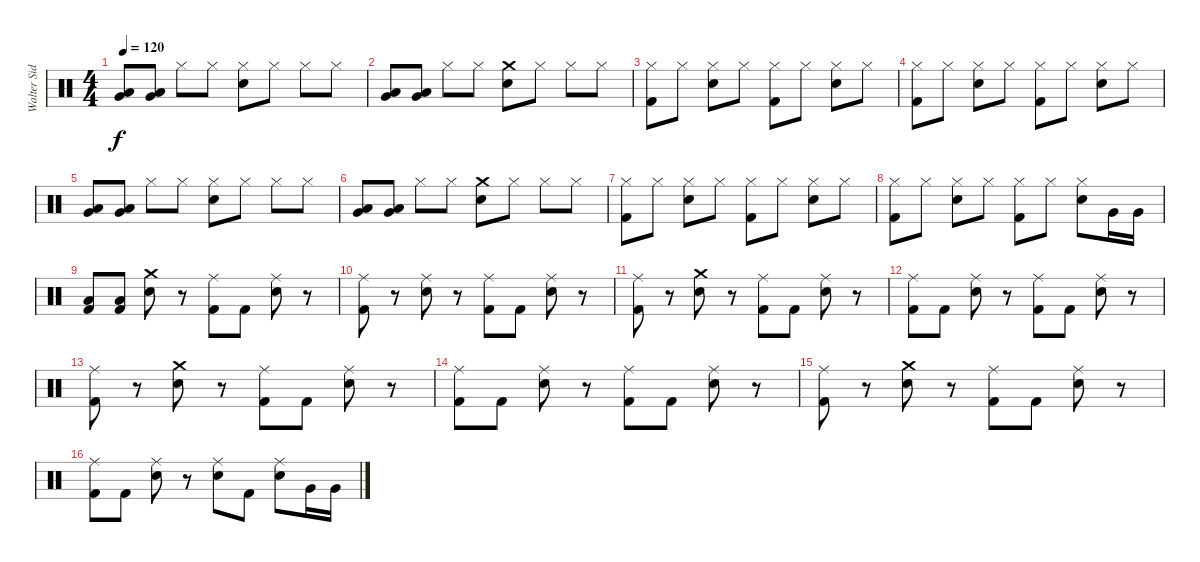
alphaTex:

\track ("Walter Sidotti" "Walter Sid") {instrument percussion}
\staff {score}
\articulation defaults
\ts (4 4)
\tempo 120
\clef neutral
\ks c
("Very Low Tom (hit)" "Low Tom (hit)").8{dy f} ("Very Low Tom (hit)" "Low Tom (hit)").8 "Hi-Hat (closed)".8 "Hi-Hat (closed)".8 ("Hi-Hat (closed)" "Electric Snare (hit)").8 "Hi-Hat (closed)".8 "Hi-Hat (closed)".8 "Hi-Hat (closed)".8 |
("Very Low Tom (hit)" "Low Tom (hit)").8 ("Very Low Tom (hit)" "Low Tom (hit)").8 "Hi-Hat (closed)".8 "Hi-Hat (closed)".8 ("Crash medium (hit)" "Electric Snare (hit)").8 "Hi-Hat (closed)".8 "Hi-Hat (closed)".8 "Hi-Hat (closed)".8 |
("Kick (hit) 2" "Hi-Hat (closed)").8 "Hi-Hat (closed)".8 ("Electric Snare (hit)" "Hi-Hat (closed)").8 "Hi-Hat (closed)".8 ("Kick (hit) 2" "Hi-Hat (closed)").8 "Hi-Hat (closed)".8 ("Electric Snare (hit)" "Hi-Hat (closed)").8 "Hi-Hat (closed)".8 |
("Kick (hit) 2" "Hi-Hat (closed)").8 "Hi-Hat (closed)".8 ("Electric Snare (hit)" "Hi-Hat (closed)").8 "Hi-Hat (closed)".8 ("Kick (hit) 2" "Hi-Hat (closed)").8 "Hi-Hat (closed)".8 ("Electric Snare (hit)" "Hi-Hat (closed)").8 "Hi-Hat (closed)".8 |
("Very Low Tom (hit)" "Low Tom (hit)").8 ("Very Low Tom (hit)" "Low Tom (hit)").8 "Hi-Hat (closed)".8 "Hi-Hat (closed)".8 ("Hi-Hat (closed)" "Electric Snare (hit)").8 "Hi-Hat (closed)".8 "Hi-Hat (closed)".8 "Hi-Hat (closed)".8 |
("Very Low Tom (hit)" "Low Tom (hit)").8 ("Very Low Tom (hit)" "Low Tom (hit)").8 "Hi-Hat (closed)".8 "Hi-Hat (closed)".8 ("Crash medium (hit)" "Electric Snare (hit)").8 "Hi-Hat (closed)".8 "Hi-Hat (closed)".8 "Hi-Hat (closed)".8 |
("Kick (hit) 2" "Hi-Hat (closed)").8 "Hi-Hat (closed)".8 ("Electric Snare (hit)" "Hi-Hat (closed)").8 "Hi-Hat (closed)".8 ("Kick (hit) 2" "Hi-Hat (closed)").8 "Hi-Hat (closed)".8 ("Electric Snare (hit)" "Hi-Hat (closed)").8 "Hi-Hat (closed)".8 |
("Kick (hit) 2" "Hi-Hat (closed)").8 "Hi-Hat (closed)".8 ("Electric Snare (hit)" "Hi-Hat (closed)").8 "Hi-Hat (closed)".8 ("Kick (hit) 2" "Hi-Hat (closed)").8 "Hi-Hat (closed)".8 ("Electric Snare (hit)" "Hi-Hat (closed)").8 "Very Low Tom (hit)".16 "Very Low Tom (hit)".16 |
("Kick (hit) 2" "Low Tom (hit)").8 ("Kick (hit) 2" "Low Tom (hit)").8 ("Electric Snare (hit)" "Crash medium (hit)").8 r.8 ("Kick (hit) 2" "Ride (middle)").8 "Kick (hit) 2".8 ("Electric Snare (hit)" "Ride (middle)").8 r.8 |
("Kick (hit) 2" "Ride (middle)").8 r.8 ("Electric Snare (hit)" "Ride (middle)").8 r.8 ("Kick (hit) 2" "Ride (middle)").8 "Kick (hit) 2".8 ("Electric Snare (hit)" "Ride (middle)").8 r.8 |
("Kick (hit) 2" "Ride (middle)").8 r.8 ("Electric Snare (hit)" "Crash medium (hit)").8 r.8 ("Kick (hit) 2" "Ride (middle)").8 "Kick (hit) 2".8 ("Electric Snare (hit)" "Ride (middle)").8 r.8 |
("Kick (hit) 2" "Ride (middle)").8 "Kick (hit) 2".8 ("Electric Snare (hit)" "Ride (middle)").8 r.8 ("Kick (hit) 2" "Ride (middle)").8 "Kick (hit) 2".8 ("Electric Snare (hit)" "Ride (middle)").8 r.8 |
("Kick (hit) 2" "Ride (middle)").8 r.8 ("Electric Snare (hit)" "Crash medium (hit)").8 r.8 ("Kick (hit) 2" "Ride (middle)").8 "Kick (hit) 2".8 ("Electric Snare (hit)" "Ride (middle)").8 r.8 |
("Kick (hit) 2" "Ride (middle)").8 "Kick (hit) 2".8 ("Electric Snare (hit)" "Ride (middle)").8 r.8 ("Kick (hit) 2" "Ride (middle)").8 "Kick (hit) 2".8 ("Electric Snare (hit)" "Ride (middle)").8 r.8 |
("Kick (hit) 2" "Ride (middle)").8 r.8 ("Electric Snare (hit)" "Crash medium (hit)").8 r.8 ("Kick (hit) 2" "Ride (middle)").8 "Kick (hit) 2".8 ("Electric Snare (hit)" "Ride (middle)").8 r.8 |
("Kick (hit) 2" "Ride (middle)").8 "Kick (hit) 2".8 ("Electric Snare (hit)" "Ride (middle)").8 r.8 ("Electric Snare (hit)" "Ride (middle)").8 "Kick (hit) 2".8 ("Electric Snare (hit)" "Ride (middle)").8 "Very Low Tom (hit)".16 "Very Low Tom (hit)".16
